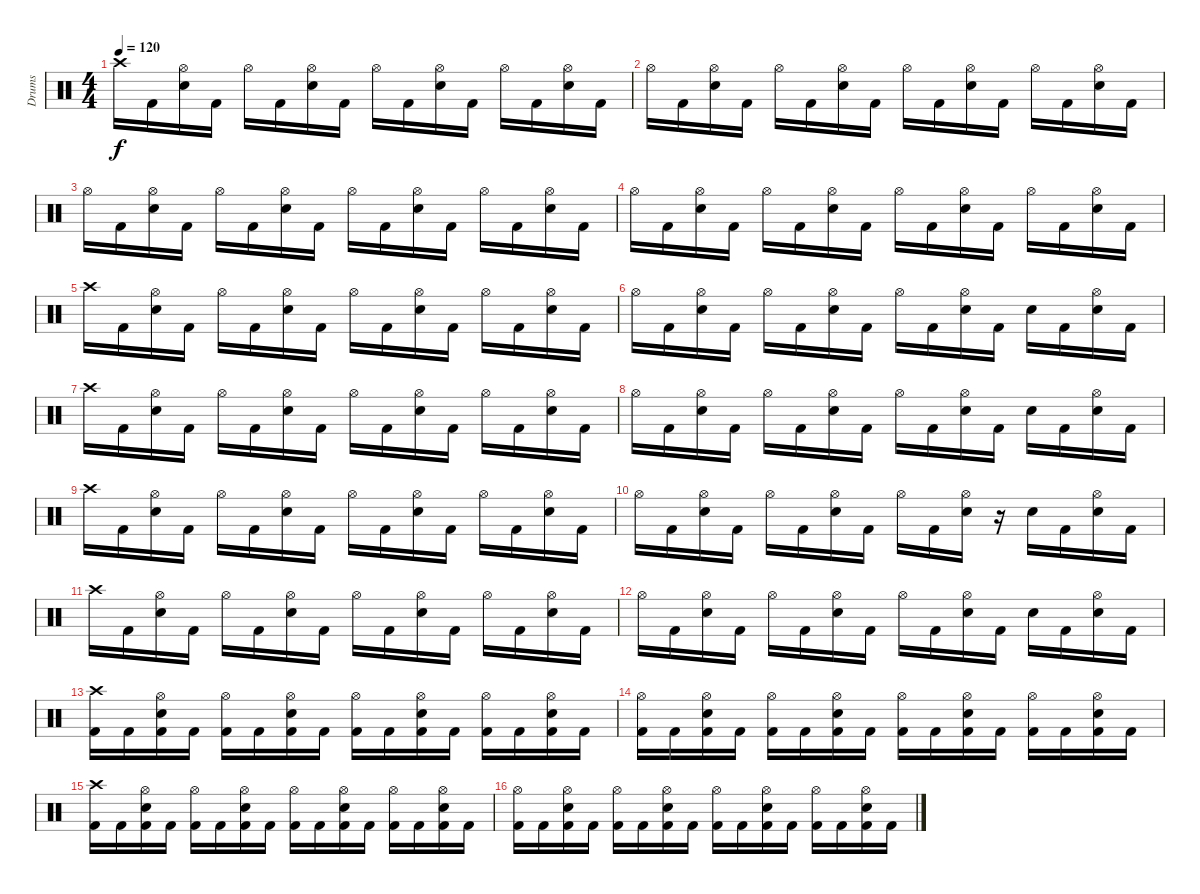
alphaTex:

\track ("Drums" "Drums") {instrument percussion}
\staff {score}
\articulation defaults
\ts (4 4)
\tempo 120
\clef neutral
\ks c "Crash high (hit)".16{dy f} "Kick (hit) 2".16
("Snare (hit) 2" "Hi-Hat (open)").16 "Kick (hit) 2".16 "Hi-Hat (open)".16 "Kick (hit) 2".16 ("Snare (hit) 2" "Hi-Hat (open)").16 "Kick (hit) 2".16 "Hi-Hat (open)".16 "Kick (hit) 2".16 ("Snare (hit) 2" "Hi-Hat (open)").16 "Kick (hit) 2".16 "Hi-Hat (open)".16 "Kick (hit) 2".16 ("Snare (hit) 2" "Hi-Hat (open)").16 "Kick (hit) 2".16 |
"Hi-Hat (open)".16 "Kick (hit) 2".16 ("Snare (hit) 2" "Hi-Hat (open)").16 "Kick (hit) 2".16 "Hi-Hat (open)".16 "Kick (hit) 2".16 ("Snare (hit) 2" "Hi-Hat (open)").16 "Kick (hit) 2".16 "Hi-Hat (open)".16 "Kick (hit) 2".16 ("Snare (hit) 2" "Hi-Hat (open)").16 "Kick (hit) 2".16 "Hi-Hat (open)".16 "Kick (hit) 2".16 ("Snare (hit) 2" "Hi-Hat (open)").16 "Kick (hit) 2".16 |
"Hi-Hat (open)".16 "Kick (hit) 2".16 ("Snare (hit) 2" "Hi-Hat (open)").16 "Kick (hit) 2".16 "Hi-Hat (open)".16 "Kick (hit) 2".16 ("Snare (hit) 2" "Hi-Hat (open)").16 "Kick (hit) 2".16 "Hi-Hat (open)".16 "Kick (hit) 2".16 ("Snare (hit) 2" "Hi-Hat (open)").16 "Kick (hit) 2".16 "Hi-Hat (open)".16 "Kick (hit) 2".16 ("Snare (hit) 2" "Hi-Hat (open)").16 "Kick (hit) 2".16 |
"Hi-Hat (open)".16 "Kick (hit) 2".16 ("Snare (hit) 2" "Hi-Hat (open)").16 "Kick (hit) 2".16 "Hi-Hat (open)".16 "Kick (hit) 2".16 ("Snare (hit) 2" "Hi-Hat (open)").16 "Kick (hit) 2".16 "Hi-Hat (open)".16 "Kick (hit) 2".16 ("Snare (hit) 2" "Hi-Hat (open)").16 "Kick (hit) 2".16 "Hi-Hat (open)".16 "Kick (hit) 2".16 ("Snare (hit) 2" "Hi-Hat (open)").16 "Kick (hit) 2".16 |
"Crash high (hit)".16 "Kick (hit) 2".16 ("Snare (hit) 2" "Hi-Hat (open)").16 "Kick (hit) 2".16 "Hi-Hat (open)".16 "Kick (hit) 2".16 ("Snare (hit) 2" "Hi-Hat (open)").16 "Kick (hit) 2".16 "Hi-Hat (open)".16 "Kick (hit) 2".16 ("Snare (hit) 2" "Hi-Hat (open)").16 "Kick (hit) 2".16 "Hi-Hat (open)".16 "Kick (hit) 2".16 ("Snare (hit) 2" "Hi-Hat (open)").16 "Kick (hit) 2".16 |
"Hi-Hat (open)".16 "Kick (hit) 2".16 ("Snare (hit) 2" "Hi-Hat (open)").16 "Kick (hit) 2".16 "Hi-Hat (open)".16 "Kick (hit) 2".16 ("Snare (hit) 2" "Hi-Hat (open)").16 "Kick (hit) 2".16 "Hi-Hat (open)".16 "Kick (hit) 2".16 ("Snare (hit) 2" "Hi-Hat (open)").16 "Kick (hit) 2".16 "Snare (hit) 2".16 "Kick (hit) 2".16 ("Snare (hit) 2" "Hi-Hat (open)").16 "Kick (hit) 2".16 |
"Crash high (hit)".16 "Kick (hit) 2".16 ("Snare (hit) 2" "Hi-Hat (open)").16 "Kick (hit) 2".16 "Hi-Hat (open)".16 "Kick (hit) 2".16 ("Snare (hit) 2" "Hi-Hat (open)").16 "Kick (hit) 2".16 "Hi-Hat (open)".16 "Kick (hit) 2".16 ("Snare (hit) 2" "Hi-Hat (open)").16 "Kick (hit) 2".16 "Hi-Hat (open)".16 "Kick (hit) 2".16 ("Snare (hit) 2" "Hi-Hat (open)").16 "Kick (hit) 2".16 |
"Hi-Hat (open)".16 "Kick (hit) 2".16 ("Snare (hit) 2" "Hi-Hat (open)").16 "Kick (hit) 2".16 "Hi-Hat (open)".16 "Kick (hit) 2".16 ("Snare (hit) 2" "Hi-Hat (open)").16 "Kick (hit) 2".16 "Hi-Hat (open)".16 "Kick (hit) 2".16 ("Snare (hit) 2" "Hi-Hat (open)").16 "Kick (hit) 2".16 "Snare (hit) 2".16 "Kick (hit) 2".16 ("Snare (hit) 2" "Hi-Hat (open)").16 "Kick (hit) 2".16 |
"Crash high (hit)".16 "Kick (hit) 2".16 ("Snare (hit) 2" "Hi-Hat (open)").16 "Kick (hit) 2".16 "Hi-Hat (open)".16 "Kick (hit) 2".16 ("Snare (hit) 2" "Hi-Hat (open)").16 "Kick (hit) 2".16 "Hi-Hat (open)".16 "Kick (hit) 2".16 ("Snare (hit) 2" "Hi-Hat (open)").16 "Kick (hit) 2".16 "Hi-Hat (open)".16 "Kick (hit) 2".16 ("Snare (hit) 2" "Hi-Hat (open)").16 "Kick (hit) 2".16 |
"Hi-Hat (open)".16 "Kick (hit) 2".16 ("Snare (hit) 2" "Hi-Hat (open)").16 "Kick (hit) 2".16 "Hi-Hat (open)".16 "Kick (hit) 2".16 ("Snare (hit) 2" "Hi-Hat (open)").16 "Kick (hit) 2".16 "Hi-Hat (open)".16 "Kick (hit) 2".16 ("Snare (hit) 2" "Hi-Hat (open)").16 r.16 "Snare (hit) 2".16 "Kick (hit) 2".16 ("Snare (hit) 2" "Hi-Hat (open)").16 "Kick (hit) 2".16 |
"Crash high (hit)".16 "Kick (hit) 2".16 ("Snare (hit) 2" "Hi-Hat (open)").16 "Kick (hit) 2".16 "Hi-Hat (open)".16 "Kick (hit) 2".16 ("Snare (hit) 2" "Hi-Hat (open)").16 "Kick (hit) 2".16 "Hi-Hat (open)".16 "Kick (hit) 2".16 ("Snare (hit) 2" "Hi-Hat (open)").16 "Kick (hit) 2".16 "Hi-Hat (open)".16 "Kick (hit) 2".16 ("Snare (hit) 2" "Hi-Hat (open)").16 "Kick (hit) 2".16 |
"Hi-Hat (open)".16 "Kick (hit) 2".16 ("Snare (hit) 2" "Hi-Hat (open)").16 "Kick (hit) 2".16 "Hi-Hat (open)".16 "Kick (hit) 2".16 ("Snare (hit) 2" "Hi-Hat (open)").16 "Kick (hit) 2".16 "Hi-Hat (open)".16 "Kick (hit) 2".16 ("Snare (hit) 2" "Hi-Hat (open)").16 "Kick (hit) 2".16 "Snare (hit) 2".16 "Kick (hit) 2".16 ("Snare (hit) 2" "Hi-Hat (open)").16 "Kick (hit) 2".16 |
("Kick (hit) 2" "Crash high (hit)").16 "Kick (hit) 2".16 ("Kick (hit) 2" "Snare (hit) 2" "Hi-Hat (open)").16 "Kick (hit) 2".16 ("Kick (hit) 2" "Hi-Hat (open)").16 "Kick (hit) 2".16 ("Kick (hit) 2" "Snare (hit) 2" "Hi-Hat (open)").16 "Kick (hit) 2".16 ("Kick (hit) 2" "Hi-Hat (open)").16 "Kick (hit) 2".16 ("Kick (hit) 2" "Snare (hit) 2" "Hi-Hat (open)").16 "Kick (hit) 2".16 ("Kick (hit) 2" "Hi-Hat (open)").16 "Kick (hit) 2".16 ("Kick (hit) 2" "Snare (hit) 2" "Hi-Hat (open)").16 "Kick (hit) 2".16 |
("Kick (hit) 2" "Hi-Hat (open)").16 "Kick (hit) 2".16 ("Kick (hit) 2" "Snare (hit) 2" "Hi-Hat (open)").16 "Kick (hit) 2".16 ("Kick (hit) 2" "Hi-Hat (open)").16 "Kick (hit) 2".16 ("Kick (hit) 2" "Snare (hit) 2" "Hi-Hat (open)").16 "Kick (hit) 2".16 ("Kick (hit) 2" "Hi-Hat (open)").16 "Kick (hit) 2".16 ("Kick (hit) 2" "Snare (hit) 2" "Hi-Hat (open)").16 "Kick (hit) 2".16 ("Kick (hit) 2" "Hi-Hat (open)").16 "Kick (hit) 2".16 ("Kick (hit) 2" "Snare (hit) 2" "Hi-Hat (open)").16 "Kick (hit) 2".16 |
("Kick (hit) 2" "Crash high (hit)").16 "Kick (hit) 2".16 ("Kick (hit) 2" "Snare (hit) 2" "Hi-Hat (open)").16 "Kick (hit) 2".16 ("Kick (hit) 2" "Hi-Hat (open)").16 "Kick (hit) 2".16 ("Kick (hit) 2" "Snare (hit) 2" "Hi-Hat (open)").16 "Kick (hit) 2".16 ("Kick (hit) 2" "Hi-Hat (open)").16 "Kick (hit) 2".16 ("Kick (hit) 2" "Snare (hit) 2" "Hi-Hat (open)").16 "Kick (hit) 2".16 ("Kick (hit) 2" "Hi-Hat (open)").16 "Kick (hit) 2".16 ("Kick (hit) 2" "Snare (hit) 2" "Hi-Hat (open)").16 "Kick (hit) 2".16 |
("Kick (hit) 2" "Hi-Hat (open)").16 "Kick (hit) 2".16 ("Kick (hit) 2" "Snare (hit) 2" "Hi-Hat (open)").16 "Kick (hit) 2".16 ("Kick (hit) 2" "Hi-Hat (open)").16 "Kick (hit) 2".16 ("Kick (hit) 2" "Snare (hit) 2" "Hi-Hat (open)").16 "Kick (hit) 2".16 ("Kick (hit) 2" "Hi-Hat (open)").16 "Kick (hit) 2".16 ("Kick (hit) 2" "Snare (hit) 2" "Hi-Hat (open)").16 "Kick (hit) 2".16 ("Kick (hit) 2" "Hi-Hat (open)").16 "Kick (hit) 2".16 ("Kick (hit) 2" "Snare (hit) 2" "Hi-Hat (open)").16 "Kick (hit) 2".16
